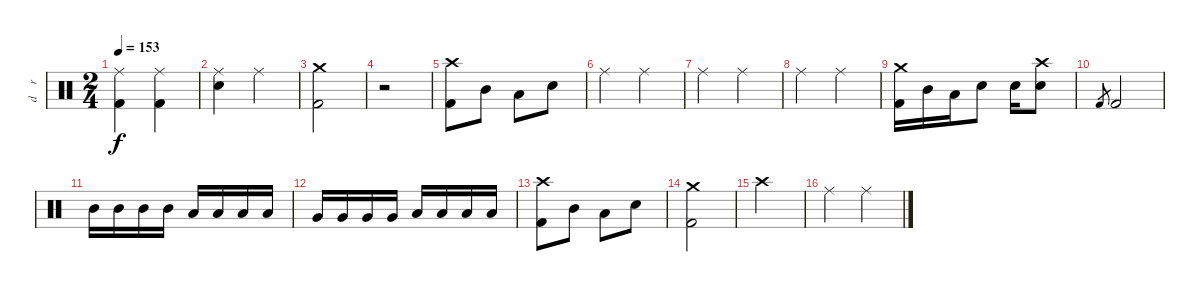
\track ("d    r     u    m    s" "d    r    ") {instrument percussion}
\staff {score}
\articulation defaults
\ts (2 4)
\tempo 153
\clef neutral
\ks c
("Ride (middle)" "Kick (hit) 2").4{dy f} ("Ride (middle)" "Kick (hit) 2").4 |
("Ride (middle)" "Electric Snare (hit)").4 "Ride (middle)".4 |
("Crash medium (hit)" "Kick (hit) 2").2 |
r.2 |
("Crash high (hit)" "Kick (hit) 2").8 "Mid Tom (hit)".8 "Low Tom (hit)".8 "Electric Snare (hit)".8 |
"Ride (middle)".4 "Ride (middle)".4 |
"Ride (middle)".4 "Ride (middle)".4 |
"Ride (middle)".4 "Ride (middle)".4 |
("Crash medium (hit)" "Kick (hit) 2").16 "Mid Tom (hit)".16 "Low Tom (hit)".16 "Electric Snare (hit)".8 "Electric Snare (hit)".16 ("Crash high (hit)" "Electric Snare (hit)").8 |
"Kick (hit) 2".8{gr} "Kick (hit) 2".2 |
"Mid Tom (hit)".16 "Mid Tom (hit)".16 "Mid Tom (hit)".16 "Mid Tom (hit)".16 "Low Tom (hit)".16 "Low Tom (hit)".16 "Low Tom (hit)".16 "Low Tom (hit)".16 |
"Very Low Tom (hit)".16 "Very Low Tom (hit)".16 "Very Low Tom (hit)".16 "Very Low Tom (hit)".16 "Low Floor Tom (hit)".16 "Low Floor Tom (hit)".16 "Low Floor Tom (hit)".16 "Low Floor Tom (hit)".16 |
("Crash high (hit)" "Kick (hit) 2").8 "Mid Tom (hit)".8 "Low Tom (hit)".8 "Electric Snare (hit)".8 |
("Crash medium (hit)" "Kick (hit) 2").2 |
"Crash high (hit)".2 |
"Ride (middle)".4 "Ride (middle)".4
